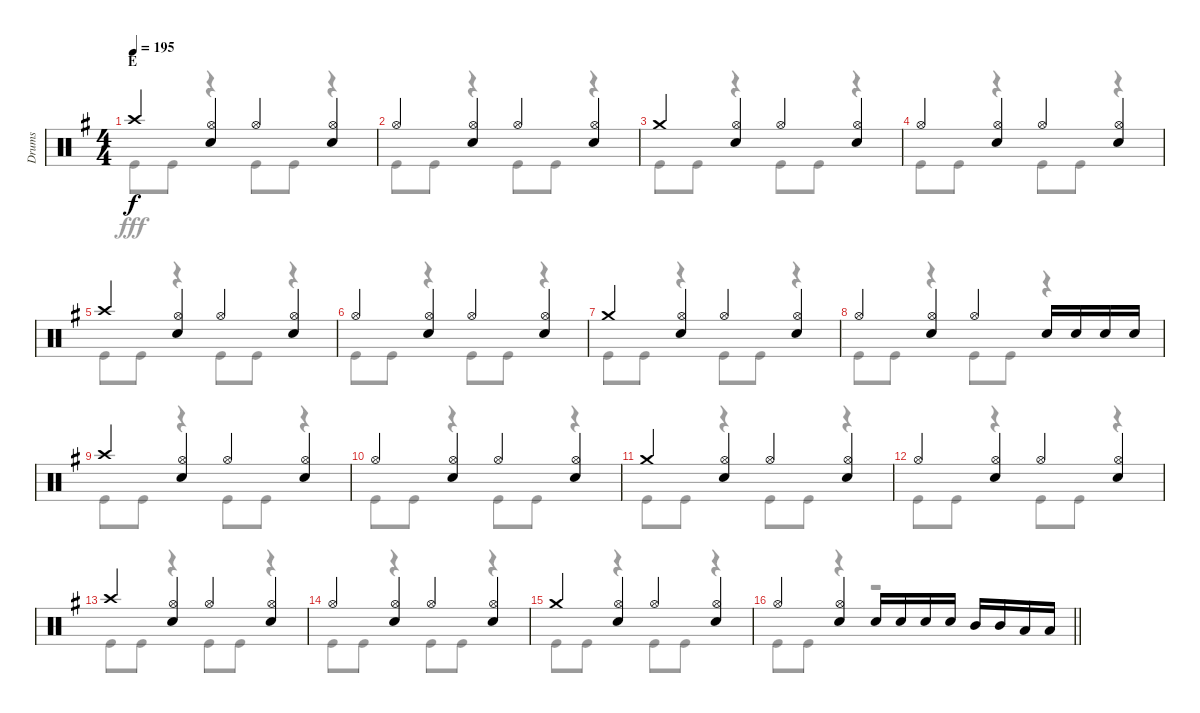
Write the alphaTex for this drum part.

\track ("Drums" "Drums") {instrument percussion}
\staff {score}
\articulation defaults
\voice
\ts (4 4)
\section ("" "E")
\tempo 195
\clef neutral
\ks g "Crash high (hit)".4{dy f}
("Hi-Hat (open)" "Snare (hit) 2").4 "Hi-Hat (open)".4 ("Hi-Hat (open)" "Snare (hit) 2").4 |
"Hi-Hat (open)".4 ("Hi-Hat (open)" "Snare (hit) 2").4 "Hi-Hat (open)".4 ("Hi-Hat (open)" "Snare (hit) 2").4 |
"Crash medium (hit)".4 ("Hi-Hat (open)" "Snare (hit) 2").4 "Hi-Hat (open)".4 ("Hi-Hat (open)" "Snare (hit) 2").4 |
"Hi-Hat (open)".4 ("Hi-Hat (open)" "Snare (hit) 2").4 "Hi-Hat (open)".4 ("Hi-Hat (open)" "Snare (hit) 2").4 |
"Crash high (hit)".4 ("Hi-Hat (open)" "Snare (hit) 2").4 "Hi-Hat (open)".4 ("Hi-Hat (open)" "Snare (hit) 2").4 |
"Hi-Hat (open)".4 ("Hi-Hat (open)" "Snare (hit) 2").4 "Hi-Hat (open)".4 ("Hi-Hat (open)" "Snare (hit) 2").4 |
"Crash medium (hit)".4 ("Hi-Hat (open)" "Snare (hit) 2").4 "Hi-Hat (open)".4 ("Hi-Hat (open)" "Snare (hit) 2").4 |
"Hi-Hat (open)".4 ("Hi-Hat (open)" "Snare (hit) 2").4 "Hi-Hat (open)".4 "Snare (hit) 2".16 "Snare (hit) 2".16 "Snare (hit) 2".16 "Snare (hit) 2".16 |
"Crash high (hit)".4 ("Hi-Hat (open)" "Snare (hit) 2").4 "Hi-Hat (open)".4 ("Hi-Hat (open)" "Snare (hit) 2").4 |
"Hi-Hat (open)".4 ("Hi-Hat (open)" "Snare (hit) 2").4 "Hi-Hat (open)".4 ("Hi-Hat (open)" "Snare (hit) 2").4 |
"Crash medium (hit)".4 ("Hi-Hat (open)" "Snare (hit) 2").4 "Hi-Hat (open)".4 ("Hi-Hat (open)" "Snare (hit) 2").4 |
"Hi-Hat (open)".4 ("Hi-Hat (open)" "Snare (hit) 2").4 "Hi-Hat (open)".4 ("Hi-Hat (open)" "Snare (hit) 2").4 |
"Crash high (hit)".4 ("Hi-Hat (open)" "Snare (hit) 2").4 "Hi-Hat (open)".4 ("Hi-Hat (open)" "Snare (hit) 2").4 |
"Hi-Hat (open)".4 ("Hi-Hat (open)" "Snare (hit) 2").4 "Hi-Hat (open)".4 ("Hi-Hat (open)" "Snare (hit) 2").4 |
"Crash medium (hit)".4 ("Hi-Hat (open)" "Snare (hit) 2").4 "Hi-Hat (open)".4 ("Hi-Hat (open)" "Snare (hit) 2").4 |
\barLineRight lightlight "Hi-Hat (open)".4
("Hi-Hat (open)" "Snare (hit) 2").4 "Snare (hit) 2".16 "Snare (hit) 2".16 "Snare (hit) 2".16 "Snare (hit) 2".16 "Mid Tom (hit)".16 "Mid Tom (hit)".16 "Low Tom (hit)".16 "Low Tom (hit)".16
\voice
\clef neutral
\ottava regular
\simile none
\ks g "Kick (hit)".8{dy fff} "Kick (hit)".8
r.4 "Kick (hit)".8 "Kick (hit)".8 r.4 |
"Kick (hit)".8 "Kick (hit)".8 r.4 "Kick (hit)".8 "Kick (hit)".8 r.4 |
"Kick (hit)".8 "Kick (hit)".8 r.4 "Kick (hit)".8 "Kick (hit)".8 r.4 |
"Kick (hit)".8 "Kick (hit)".8 r.4 "Kick (hit)".8 "Kick (hit)".8 r.4 |
"Kick (hit)".8 "Kick (hit)".8 r.4 "Kick (hit)".8 "Kick (hit)".8 r.4 |
"Kick (hit)".8 "Kick (hit)".8 r.4 "Kick (hit)".8 "Kick (hit)".8 r.4 |
"Kick (hit)".8 "Kick (hit)".8 r.4 "Kick (hit)".8 "Kick (hit)".8 r.4 |
"Kick (hit)".8 "Kick (hit)".8 r.4 "Kick (hit)".8 "Kick (hit)".8 r.4 |
"Kick (hit)".8 "Kick (hit)".8 r.4 "Kick (hit)".8 "Kick (hit)".8 r.4 |
"Kick (hit)".8 "Kick (hit)".8 r.4 "Kick (hit)".8 "Kick (hit)".8 r.4 |
"Kick (hit)".8 "Kick (hit)".8 r.4 "Kick (hit)".8 "Kick (hit)".8 r.4 |
"Kick (hit)".8 "Kick (hit)".8 r.4 "Kick (hit)".8 "Kick (hit)".8 r.4 |
"Kick (hit)".8 "Kick (hit)".8 r.4 "Kick (hit)".8 "Kick (hit)".8 r.4 |
"Kick (hit)".8 "Kick (hit)".8 r.4 "Kick (hit)".8 "Kick (hit)".8 r.4 |
"Kick (hit)".8 "Kick (hit)".8 r.4 "Kick (hit)".8 "Kick (hit)".8 r.4 |
\barLineRight lightlight "Kick (hit)".8 "Kick (hit)".8
r.4 r.2
